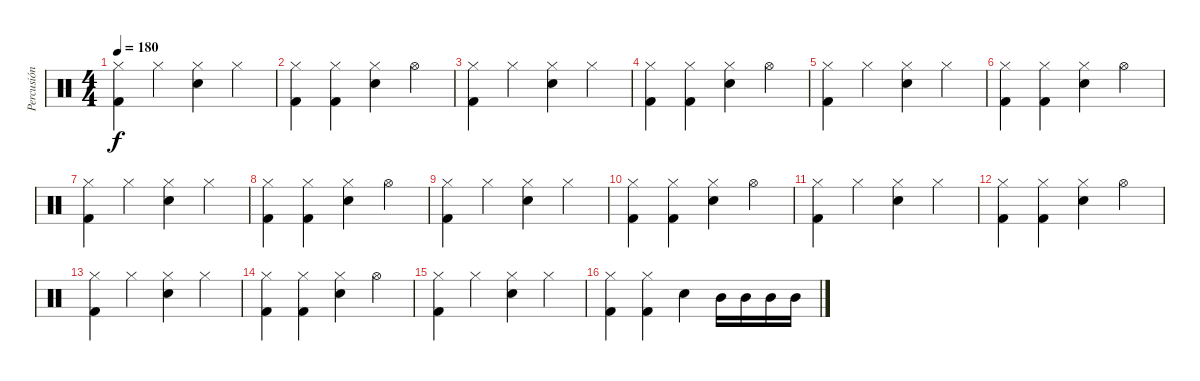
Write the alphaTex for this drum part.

\track ("Percusión" "Percusión") {instrument percussion}
\staff {score}
\articulation defaults
\ts (4 4)
\tempo 180
\clef neutral
\ks c
("Hi-Hat (closed)" "Kick (hit) 2").4{dy f} "Hi-Hat (closed)".4 ("Hi-Hat (closed)" "Snare (hit) 2").4 "Hi-Hat (closed)".4 |
("Hi-Hat (closed)" "Kick (hit) 2").4 ("Hi-Hat (closed)" "Kick (hit) 2").4 ("Hi-Hat (closed)" "Snare (hit) 2").4 "Hi-Hat (open)".4 |
("Hi-Hat (closed)" "Kick (hit) 2").4 "Hi-Hat (closed)".4 ("Hi-Hat (closed)" "Snare (hit) 2").4 "Hi-Hat (closed)".4 |
("Hi-Hat (closed)" "Kick (hit) 2").4 ("Hi-Hat (closed)" "Kick (hit) 2").4 ("Hi-Hat (closed)" "Snare (hit) 2").4 "Hi-Hat (open)".4 |
("Hi-Hat (closed)" "Kick (hit) 2").4 "Hi-Hat (closed)".4 ("Hi-Hat (closed)" "Snare (hit) 2").4 "Hi-Hat (closed)".4 |
("Hi-Hat (closed)" "Kick (hit) 2").4 ("Hi-Hat (closed)" "Kick (hit) 2").4 ("Hi-Hat (closed)" "Snare (hit) 2").4 "Hi-Hat (open)".4 |
("Hi-Hat (closed)" "Kick (hit) 2").4 "Hi-Hat (closed)".4 ("Hi-Hat (closed)" "Snare (hit) 2").4 "Hi-Hat (closed)".4 |
("Hi-Hat (closed)" "Kick (hit) 2").4 ("Hi-Hat (closed)" "Kick (hit) 2").4 ("Hi-Hat (closed)" "Snare (hit) 2").4 "Hi-Hat (open)".4 |
("Hi-Hat (closed)" "Kick (hit) 2").4 "Hi-Hat (closed)".4 ("Hi-Hat (closed)" "Snare (hit) 2").4 "Hi-Hat (closed)".4 |
("Hi-Hat (closed)" "Kick (hit) 2").4 ("Hi-Hat (closed)" "Kick (hit) 2").4 ("Hi-Hat (closed)" "Snare (hit) 2").4 "Hi-Hat (open)".4 |
("Hi-Hat (closed)" "Kick (hit) 2").4 "Hi-Hat (closed)".4 ("Hi-Hat (closed)" "Snare (hit) 2").4 "Hi-Hat (closed)".4 |
("Hi-Hat (closed)" "Kick (hit) 2").4 ("Hi-Hat (closed)" "Kick (hit) 2").4 ("Hi-Hat (closed)" "Snare (hit) 2").4 "Hi-Hat (open)".4 |
("Hi-Hat (closed)" "Kick (hit) 2").4 "Hi-Hat (closed)".4 ("Hi-Hat (closed)" "Snare (hit) 2").4 "Hi-Hat (closed)".4 |
("Hi-Hat (closed)" "Kick (hit) 2").4 ("Hi-Hat (closed)" "Kick (hit) 2").4 ("Hi-Hat (closed)" "Snare (hit) 2").4 "Hi-Hat (open)".4 |
("Hi-Hat (closed)" "Kick (hit) 2").4 "Hi-Hat (closed)".4 ("Hi-Hat (closed)" "Snare (hit) 2").4 "Hi-Hat (closed)".4 |
("Hi-Hat (closed)" "Kick (hit) 2").4 ("Hi-Hat (closed)" "Kick (hit) 2").4 "Snare (hit) 2".4 "Mid Tom (hit)".16 "Mid Tom (hit)".16 "Mid Tom (hit)".16 "Mid Tom (hit)".16
